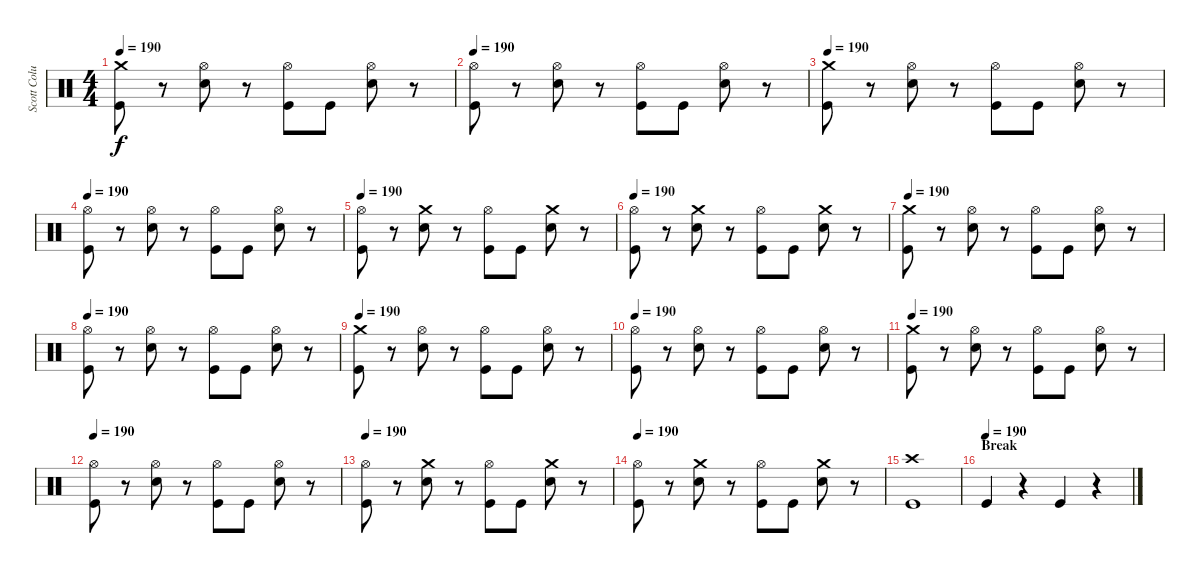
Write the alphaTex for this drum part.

\track ("Scott Columbus" "Scott Colu") {instrument percussion}
\staff {score}
\articulation defaults
\ts (4 4)
\tempo 190
\clef neutral
\ks c
("Crash medium (hit)" "Kick (hit)").8{dy f} r.8 ("Hi-Hat (open)" "Snare (hit) 2").8 r.8 ("Hi-Hat (open)" "Kick (hit)").8 "Kick (hit)".8 ("Hi-Hat (open)" "Snare (hit) 2").8 r.8 |
\tempo 190
("Hi-Hat (open)" "Kick (hit)").8 r.8 ("Hi-Hat (open)" "Snare (hit) 2").8 r.8 ("Hi-Hat (open)" "Kick (hit)").8 "Kick (hit)".8 ("Hi-Hat (open)" "Snare (hit) 2").8 r.8 |
\tempo 190
("Crash medium (hit)" "Kick (hit)").8 r.8 ("Hi-Hat (open)" "Snare (hit) 2").8 r.8 ("Hi-Hat (open)" "Kick (hit)").8 "Kick (hit)".8 ("Hi-Hat (open)" "Snare (hit) 2").8 r.8 |
\tempo 190
("Hi-Hat (open)" "Kick (hit)").8 r.8 ("Hi-Hat (open)" "Snare (hit) 2").8 r.8 ("Hi-Hat (open)" "Kick (hit)").8 "Kick (hit)".8 ("Hi-Hat (open)" "Snare (hit) 2").8 r.8 |
\tempo 190
("Hi-Hat (open)" "Kick (hit)").8 r.8 ("Crash medium (hit)" "Snare (hit) 2").8 r.8 ("Hi-Hat (open)" "Kick (hit)").8 "Kick (hit)".8 ("Crash medium (hit)" "Snare (hit) 2").8 r.8 |
\tempo 190
("Hi-Hat (open)" "Kick (hit)").8 r.8 ("Crash medium (hit)" "Snare (hit) 2").8 r.8 ("Hi-Hat (open)" "Kick (hit)").8 "Kick (hit)".8 ("Crash medium (hit)" "Snare (hit) 2").8 r.8 |
\tempo 190
("Crash medium (hit)" "Kick (hit)").8 r.8 ("Hi-Hat (open)" "Snare (hit) 2").8 r.8 ("Hi-Hat (open)" "Kick (hit)").8 "Kick (hit)".8 ("Hi-Hat (open)" "Snare (hit) 2").8 r.8 |
\tempo 190
("Hi-Hat (open)" "Kick (hit)").8 r.8 ("Hi-Hat (open)" "Snare (hit) 2").8 r.8 ("Hi-Hat (open)" "Kick (hit)").8 "Kick (hit)".8 ("Hi-Hat (open)" "Snare (hit) 2").8 r.8 |
\tempo 190
("Crash medium (hit)" "Kick (hit)").8 r.8 ("Hi-Hat (open)" "Snare (hit) 2").8 r.8 ("Hi-Hat (open)" "Kick (hit)").8 "Kick (hit)".8 ("Hi-Hat (open)" "Snare (hit) 2").8 r.8 |
\tempo 190
("Hi-Hat (open)" "Kick (hit)").8 r.8 ("Hi-Hat (open)" "Snare (hit) 2").8 r.8 ("Hi-Hat (open)" "Kick (hit)").8 "Kick (hit)".8 ("Hi-Hat (open)" "Snare (hit) 2").8 r.8 |
\tempo 190
("Crash medium (hit)" "Kick (hit)").8 r.8 ("Hi-Hat (open)" "Snare (hit) 2").8 r.8 ("Hi-Hat (open)" "Kick (hit)").8 "Kick (hit)".8 ("Hi-Hat (open)" "Snare (hit) 2").8 r.8 |
\tempo 190
("Hi-Hat (open)" "Kick (hit)").8 r.8 ("Hi-Hat (open)" "Snare (hit) 2").8 r.8 ("Hi-Hat (open)" "Kick (hit)").8 "Kick (hit)".8 ("Hi-Hat (open)" "Snare (hit) 2").8 r.8 |
\tempo 190
("Hi-Hat (open)" "Kick (hit)").8 r.8 ("Crash medium (hit)" "Snare (hit) 2").8 r.8 ("Hi-Hat (open)" "Kick (hit)").8 "Kick (hit)".8 ("Crash medium (hit)" "Snare (hit) 2").8 r.8 |
\tempo 190
("Hi-Hat (open)" "Kick (hit)").8 r.8 ("Crash medium (hit)" "Snare (hit) 2").8 r.8 ("Hi-Hat (open)" "Kick (hit)").8 "Kick (hit)".8 ("Crash medium (hit)" "Snare (hit) 2").8 r.8 |
("Crash high (hit)" "Kick (hit)").1 |
\section ("" "Break")
\tempo (190)
"Kick (hit)".4 r.4 "Kick (hit)".4 r.4
